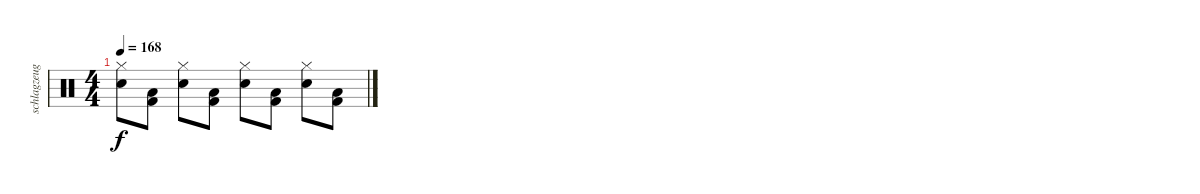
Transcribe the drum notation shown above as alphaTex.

\track ("schlagzeug" "schlagzeug") {instrument percussion}
\staff {score}
\articulation defaults
\ts (4 4)
\tempo 168
\clef neutral
\ks c
("Electric Snare (hit)" "Hi-Hat (closed)").8{dy f volume 2} ("Low Floor Tom (hit)" "Kick (hit) 2").8 ("Electric Snare (hit)" "Hi-Hat (closed)").8 ("Low Floor Tom (hit)" "Kick (hit) 2").8 ("Electric Snare (hit)" "Hi-Hat (closed)").8 ("Low Floor Tom (hit)" "Kick (hit) 2").8 ("Electric Snare (hit)" "Hi-Hat (closed)").8 ("Low Floor Tom (hit)" "Kick (hit) 2").8
